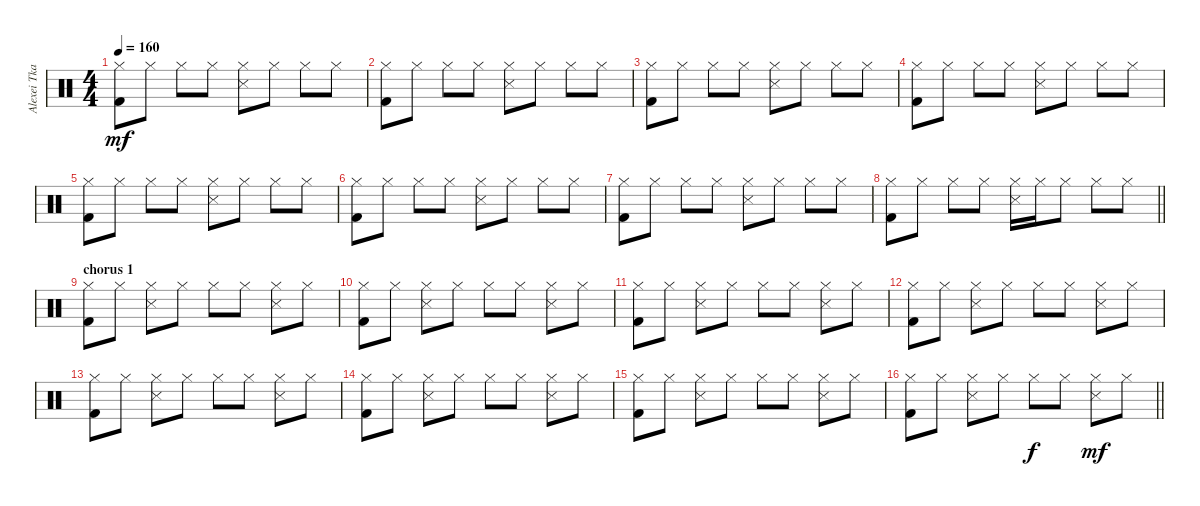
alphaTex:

\track ("Alexei Tkachevskiy " "Alexei Tka") {instrument percussion}
\staff {score}
\articulation defaults
\ts (4 4)
\tempo 160
\clef neutral
\ks c
("Hi-Hat (closed)" "Kick (hit) 2").8{dy mf} "Hi-Hat (closed)".8 "Hi-Hat (closed)".8 "Hi-Hat (closed)".8 ("Hi-Hat (closed)" "Snare (side stick) 3").8 "Hi-Hat (closed)".8 "Hi-Hat (closed)".8 "Hi-Hat (closed)".8 |
("Hi-Hat (closed)" "Kick (hit) 2").8 "Hi-Hat (closed)".8 "Hi-Hat (closed)".8 "Hi-Hat (closed)".8 ("Hi-Hat (closed)" "Snare (side stick) 3").8 "Hi-Hat (closed)".8 "Hi-Hat (closed)".8 "Hi-Hat (closed)".8 |
("Hi-Hat (closed)" "Kick (hit) 2").8 "Hi-Hat (closed)".8 "Hi-Hat (closed)".8 "Hi-Hat (closed)".8 ("Hi-Hat (closed)" "Snare (side stick) 3").8 "Hi-Hat (closed)".8 "Hi-Hat (closed)".8 "Hi-Hat (closed)".8 |
("Hi-Hat (closed)" "Kick (hit) 2").8 "Hi-Hat (closed)".8 "Hi-Hat (closed)".8 "Hi-Hat (closed)".8 ("Hi-Hat (closed)" "Snare (side stick) 3").8 "Hi-Hat (closed)".8 "Hi-Hat (closed)".8 "Hi-Hat (closed)".8 |
("Hi-Hat (closed)" "Kick (hit) 2").8 "Hi-Hat (closed)".8 "Hi-Hat (closed)".8 "Hi-Hat (closed)".8 ("Hi-Hat (closed)" "Snare (side stick) 3").8 "Hi-Hat (closed)".8 "Hi-Hat (closed)".8 "Hi-Hat (closed)".8 |
("Hi-Hat (closed)" "Kick (hit) 2").8 "Hi-Hat (closed)".8 "Hi-Hat (closed)".8 "Hi-Hat (closed)".8 ("Hi-Hat (closed)" "Snare (side stick) 3").8 "Hi-Hat (closed)".8 "Hi-Hat (closed)".8 "Hi-Hat (closed)".8 |
("Hi-Hat (closed)" "Kick (hit) 2").8 "Hi-Hat (closed)".8 "Hi-Hat (closed)".8 "Hi-Hat (closed)".8 ("Hi-Hat (closed)" "Snare (side stick) 3").8 "Hi-Hat (closed)".8 "Hi-Hat (closed)".8 "Hi-Hat (closed)".8 |
\barLineRight lightlight
("Hi-Hat (closed)" "Kick (hit) 2").8 "Hi-Hat (closed)".8 "Hi-Hat (closed)".8 "Hi-Hat (closed)".8 ("Hi-Hat (closed)" "Snare (side stick) 3").16 "Hi-Hat (closed)".16 "Hi-Hat (closed)".8 "Hi-Hat (closed)".8 "Hi-Hat (closed)".8 |
\section ("" "chorus 1")
("Hi-Hat (closed)" "Kick (hit) 2").8 "Hi-Hat (closed)".8 ("Hi-Hat (closed)" "Snare (side stick) 3").8 "Hi-Hat (closed)".8 "Hi-Hat (closed)".8 "Hi-Hat (closed)".8 ("Hi-Hat (closed)" "Snare (side stick) 3").8 "Hi-Hat (closed)".8 |
("Hi-Hat (closed)" "Kick (hit) 2").8 "Hi-Hat (closed)".8 ("Hi-Hat (closed)" "Snare (side stick) 3").8 "Hi-Hat (closed)".8 "Hi-Hat (closed)".8 "Hi-Hat (closed)".8 ("Hi-Hat (closed)" "Snare (side stick) 3").8 "Hi-Hat (closed)".8 |
("Hi-Hat (closed)" "Kick (hit) 2").8 "Hi-Hat (closed)".8 ("Hi-Hat (closed)" "Snare (side stick) 3").8 "Hi-Hat (closed)".8 "Hi-Hat (closed)".8 "Hi-Hat (closed)".8 ("Hi-Hat (closed)" "Snare (side stick) 3").8 "Hi-Hat (closed)".8 |
("Hi-Hat (closed)" "Kick (hit) 2").8 "Hi-Hat (closed)".8 ("Hi-Hat (closed)" "Snare (side stick) 3").8 "Hi-Hat (closed)".8 "Hi-Hat (closed)".8 "Hi-Hat (closed)".8 ("Hi-Hat (closed)" "Snare (side stick) 3").8 "Hi-Hat (closed)".8 |
("Hi-Hat (closed)" "Kick (hit) 2").8 "Hi-Hat (closed)".8 ("Hi-Hat (closed)" "Snare (side stick) 3").8 "Hi-Hat (closed)".8 "Hi-Hat (closed)".8 "Hi-Hat (closed)".8 ("Hi-Hat (closed)" "Snare (side stick) 3").8 "Hi-Hat (closed)".8 |
("Hi-Hat (closed)" "Kick (hit) 2").8 "Hi-Hat (closed)".8 ("Hi-Hat (closed)" "Snare (side stick) 3").8 "Hi-Hat (closed)".8 "Hi-Hat (closed)".8 "Hi-Hat (closed)".8 ("Hi-Hat (closed)" "Snare (side stick) 3").8 "Hi-Hat (closed)".8 |
("Hi-Hat (closed)" "Kick (hit) 2").8 "Hi-Hat (closed)".8 ("Hi-Hat (closed)" "Snare (side stick) 3").8 "Hi-Hat (closed)".8 "Hi-Hat (closed)".8 "Hi-Hat (closed)".8 ("Hi-Hat (closed)" "Snare (side stick) 3").8 "Hi-Hat (closed)".8 |
\barLineRight lightlight
("Hi-Hat (closed)" "Kick (hit) 2").8 "Hi-Hat (closed)".8 ("Hi-Hat (closed)" "Snare (side stick) 3").8 "Hi-Hat (closed)".8 "Hi-Hat (closed)".8{dy f} "Hi-Hat (closed)".8 ("Hi-Hat (closed)" "Snare (side stick) 3").8{dy mf} "Hi-Hat (closed)".8
